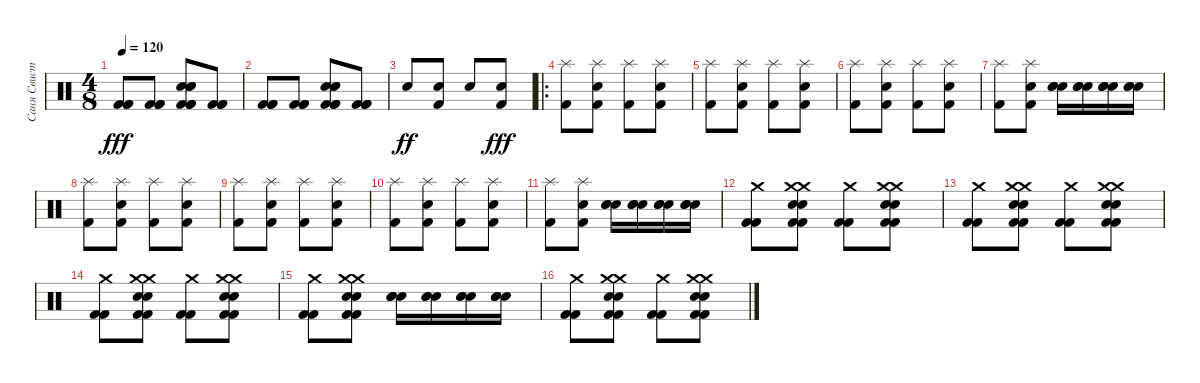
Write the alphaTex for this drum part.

\track ("Саня Свистун - Drums" "Саня Свист") {instrument percussion}
\staff {score}
\articulation defaults
\ts (4 8)
\tempo 120
\clef neutral
\ks c
("Kick (hit) 2" "Kick (hit) 2" "Kick (hit) 2").8{dy fff} ("Kick (hit) 2" "Kick (hit) 2" "Kick (hit) 2").8 ("Kick (hit) 2" "Kick (hit) 2" "Kick (hit) 2" "Electric Snare (hit)" "Electric Snare (hit)" "Electric Snare (hit)").8 ("Kick (hit) 2" "Kick (hit) 2" "Kick (hit) 2").8 |
("Kick (hit) 2" "Kick (hit) 2" "Kick (hit) 2").8 ("Kick (hit) 2" "Kick (hit) 2" "Kick (hit) 2").8 ("Kick (hit) 2" "Kick (hit) 2" "Kick (hit) 2" "Electric Snare (hit)" "Electric Snare (hit)" "Electric Snare (hit)").8 ("Kick (hit) 2" "Kick (hit) 2" "Kick (hit) 2").8 |
"Electric Snare (hit)".8{dy ff} ("Electric Snare (hit)" "Kick (hit) 2").8 "Electric Snare (hit)".8 ("Electric Snare (hit)" "Kick (hit) 2").8{dy fff} |
\ro
("Kick (hit) 2" "Splash (hit)").8 ("Electric Snare (hit)" "Splash (hit)" "Kick (hit) 2").8 ("Kick (hit) 2" "Splash (hit)").8 ("Electric Snare (hit)" "Splash (hit)" "Kick (hit) 2").8 |
("Kick (hit) 2" "Splash (hit)").8 ("Electric Snare (hit)" "Splash (hit)" "Kick (hit) 2").8 ("Kick (hit) 2" "Splash (hit)").8 ("Electric Snare (hit)" "Splash (hit)" "Kick (hit) 2").8 |
("Kick (hit) 2" "Splash (hit)").8 ("Electric Snare (hit)" "Splash (hit)" "Kick (hit) 2").8 ("Kick (hit) 2" "Splash (hit)").8 ("Electric Snare (hit)" "Splash (hit)" "Kick (hit) 2").8 |
("Kick (hit) 2" "Splash (hit)").8 ("Electric Snare (hit)" "Splash (hit)" "Kick (hit) 2").8 ("Electric Snare (hit)" "Electric Snare (hit)" "Electric Snare (hit)").16 ("Electric Snare (hit)" "Electric Snare (hit)" "Electric Snare (hit)").16 ("Electric Snare (hit)" "Electric Snare (hit)" "Electric Snare (hit)").16 ("Electric Snare (hit)" "Electric Snare (hit)" "Electric Snare (hit)").16 |
("Kick (hit) 2" "Splash (hit)").8 ("Electric Snare (hit)" "Splash (hit)" "Kick (hit) 2").8 ("Kick (hit) 2" "Splash (hit)").8 ("Electric Snare (hit)" "Splash (hit)" "Kick (hit) 2").8 |
("Kick (hit) 2" "Splash (hit)").8 ("Electric Snare (hit)" "Splash (hit)" "Kick (hit) 2").8 ("Kick (hit) 2" "Splash (hit)").8 ("Electric Snare (hit)" "Splash (hit)" "Kick (hit) 2").8 |
("Kick (hit) 2" "Splash (hit)").8 ("Electric Snare (hit)" "Splash (hit)" "Kick (hit) 2").8 ("Kick (hit) 2" "Splash (hit)").8 ("Electric Snare (hit)" "Splash (hit)" "Kick (hit) 2").8 |
("Kick (hit) 2" "Splash (hit)").8 ("Electric Snare (hit)" "Splash (hit)" "Kick (hit) 2").8 ("Electric Snare (hit)" "Electric Snare (hit)" "Electric Snare (hit)").16 ("Electric Snare (hit)" "Electric Snare (hit)" "Electric Snare (hit)").16 ("Electric Snare (hit)" "Electric Snare (hit)" "Electric Snare (hit)").16 ("Electric Snare (hit)" "Electric Snare (hit)" "Electric Snare (hit)").16 |
("Kick (hit) 2" "Crash medium (hit)" "Kick (hit) 2").8 ("Kick (hit) 2" "Crash medium (hit)" "Electric Snare (hit)" "Electric Snare (hit)" "Crash medium (hit)" "Kick (hit) 2").8 ("Kick (hit) 2" "Crash medium (hit)" "Kick (hit) 2").8 ("Kick (hit) 2" "Crash medium (hit)" "Crash medium (hit)" "Electric Snare (hit)" "Electric Snare (hit)" "Kick (hit) 2").8 |
("Kick (hit) 2" "Crash medium (hit)" "Kick (hit) 2").8 ("Kick (hit) 2" "Crash medium (hit)" "Electric Snare (hit)" "Electric Snare (hit)" "Crash medium (hit)" "Kick (hit) 2").8 ("Kick (hit) 2" "Crash medium (hit)" "Kick (hit) 2").8 ("Kick (hit) 2" "Crash medium (hit)" "Crash medium (hit)" "Electric Snare (hit)" "Electric Snare (hit)" "Kick (hit) 2").8 |
("Kick (hit) 2" "Crash medium (hit)" "Kick (hit) 2").8 ("Kick (hit) 2" "Crash medium (hit)" "Electric Snare (hit)" "Electric Snare (hit)" "Crash medium (hit)" "Kick (hit) 2").8 ("Kick (hit) 2" "Crash medium (hit)" "Kick (hit) 2").8 ("Kick (hit) 2" "Crash medium (hit)" "Crash medium (hit)" "Electric Snare (hit)" "Electric Snare (hit)" "Kick (hit) 2").8 |
("Kick (hit) 2" "Crash medium (hit)" "Kick (hit) 2").8 ("Kick (hit) 2" "Crash medium (hit)" "Electric Snare (hit)" "Electric Snare (hit)" "Crash medium (hit)" "Kick (hit) 2").8 ("Electric Snare (hit)" "Electric Snare (hit)" "Electric Snare (hit)").16 ("Electric Snare (hit)" "Electric Snare (hit)" "Electric Snare (hit)").16 ("Electric Snare (hit)" "Electric Snare (hit)" "Electric Snare (hit)").16 ("Electric Snare (hit)" "Electric Snare (hit)" "Electric Snare (hit)").16 |
("Kick (hit) 2" "Crash medium (hit)" "Kick (hit) 2").8 ("Kick (hit) 2" "Crash medium (hit)" "Electric Snare (hit)" "Electric Snare (hit)" "Crash medium (hit)" "Kick (hit) 2").8 ("Kick (hit) 2" "Crash medium (hit)" "Kick (hit) 2").8 ("Kick (hit) 2" "Crash medium (hit)" "Crash medium (hit)" "Electric Snare (hit)" "Electric Snare (hit)" "Kick (hit) 2").8
